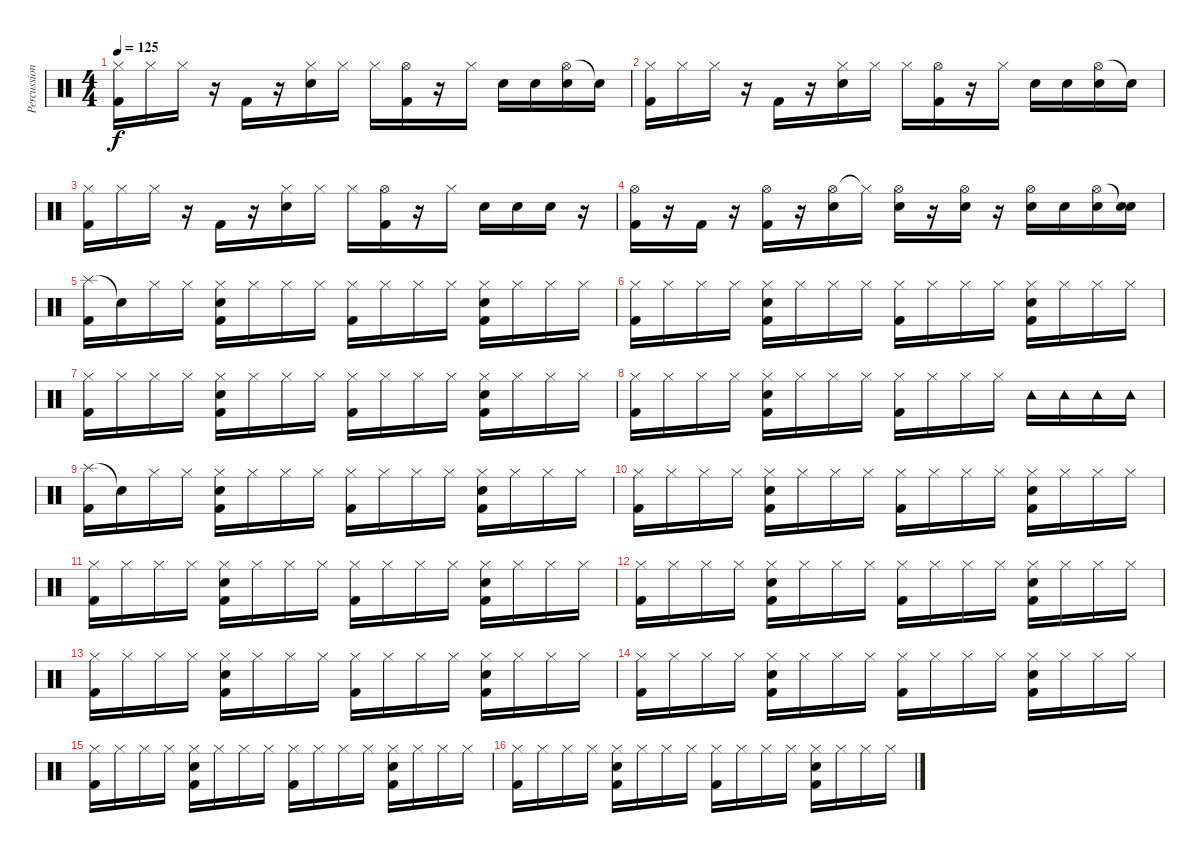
\track ("Percussion" "Percussion") {instrument percussion}
\staff {score}
\articulation defaults
\ts (4 4)
\tempo 125
\clef neutral
\ks c
("Hi-Hat (closed)" "Kick (hit) 2").16{dy f} "Hi-Hat (closed)".16 "Hi-Hat (closed)".16 r.16 "Kick (hit) 2".16 r.16 ("Hi-Hat (closed)" "Electric Snare (hit)").16 "Hi-Hat (closed)".16 "Hi-Hat (closed)".16 ("Hi-Hat (open)" "Kick (hit) 2").16 r.16 "Hi-Hat (closed)".16 "Electric Snare (hit)".16 "Electric Snare (hit)".16 ("Hi-Hat (open)" "Electric Snare (hit)").16 "Snare (hit)"{t}.16 |
("Hi-Hat (closed)" "Kick (hit) 2").16 "Hi-Hat (closed)".16 "Hi-Hat (closed)".16 r.16 "Kick (hit) 2".16 r.16 ("Hi-Hat (closed)" "Electric Snare (hit)").16 "Hi-Hat (closed)".16 "Hi-Hat (closed)".16 ("Hi-Hat (open)" "Kick (hit) 2").16 r.16 "Hi-Hat (closed)".16 "Electric Snare (hit)".16 "Electric Snare (hit)".16 ("Hi-Hat (open)" "Electric Snare (hit)").16 "Snare (hit)"{t}.16 |
("Hi-Hat (closed)" "Kick (hit) 2").16 "Hi-Hat (closed)".16 "Hi-Hat (closed)".16 r.16 "Kick (hit) 2".16 r.16 ("Hi-Hat (closed)" "Electric Snare (hit)").16 "Hi-Hat (closed)".16 "Hi-Hat (closed)".16 ("Hi-Hat (open)" "Kick (hit) 2").16 r.16 "Hi-Hat (closed)".16 "Electric Snare (hit)".16 "Electric Snare (hit)".16 "Electric Snare (hit)".16 r.16 |
("Hi-Hat (open)" "Kick (hit) 2").16 r.16 "Kick (hit) 2".16 r.16 ("Hi-Hat (open)" "Kick (hit) 2").16 r.16 ("Hi-Hat (open)" "Electric Snare (hit)").16 "Hi-Hat (closed)"{t}.16 ("Hi-Hat (open)" "Electric Snare (hit)").16 r.16 ("Hi-Hat (open)" "Electric Snare (hit)").16 r.16 ("Hi-Hat (open)" "Electric Snare (hit)").16 "Electric Snare (hit)".16 ("Hi-Hat (open)" "Electric Snare (hit)").16 ("Snare (hit)"{t} "Electric Snare (hit)").16 |
("Splash (hit)" "Kick (hit) 2").16 "Snare (hit)"{t}.16 "Hi-Hat (closed)".16 "Hi-Hat (closed)".16 ("Hi-Hat (closed)" "Electric Snare (hit)" "Kick (hit) 2").16 "Hi-Hat (closed)".16 "Hi-Hat (closed)".16 "Hi-Hat (closed)".16 ("Hi-Hat (closed)" "Kick (hit) 2").16 "Hi-Hat (closed)".16 "Hi-Hat (closed)".16 "Hi-Hat (closed)".16 ("Hi-Hat (closed)" "Electric Snare (hit)" "Kick (hit) 2").16 "Hi-Hat (closed)".16 "Hi-Hat (closed)".16 "Hi-Hat (closed)".16 |
("Hi-Hat (closed)" "Kick (hit) 2").16 "Hi-Hat (closed)".16 "Hi-Hat (closed)".16 "Hi-Hat (closed)".16 ("Hi-Hat (closed)" "Electric Snare (hit)" "Kick (hit) 2").16 "Hi-Hat (closed)".16 "Hi-Hat (closed)".16 "Hi-Hat (closed)".16 ("Hi-Hat (closed)" "Kick (hit) 2").16 "Hi-Hat (closed)".16 "Hi-Hat (closed)".16 "Hi-Hat (closed)".16 ("Hi-Hat (closed)" "Electric Snare (hit)" "Kick (hit) 2").16 "Hi-Hat (closed)".16 "Hi-Hat (closed)".16 "Hi-Hat (closed)".16 |
("Hi-Hat (closed)" "Kick (hit) 2").16 "Hi-Hat (closed)".16 "Hi-Hat (closed)".16 "Hi-Hat (closed)".16 ("Hi-Hat (closed)" "Electric Snare (hit)" "Kick (hit) 2").16 "Hi-Hat (closed)".16 "Hi-Hat (closed)".16 "Hi-Hat (closed)".16 ("Hi-Hat (closed)" "Kick (hit) 2").16 "Hi-Hat (closed)".16 "Hi-Hat (closed)".16 "Hi-Hat (closed)".16 ("Hi-Hat (closed)" "Electric Snare (hit)" "Kick (hit) 2").16 "Hi-Hat (closed)".16 "Hi-Hat (closed)".16 "Hi-Hat (closed)".16 |
("Hi-Hat (closed)" "Kick (hit) 2").16 "Hi-Hat (closed)".16 "Hi-Hat (closed)".16 "Hi-Hat (closed)".16 ("Hi-Hat (closed)" "Electric Snare (hit)" "Kick (hit) 2").16 "Hi-Hat (closed)".16 "Hi-Hat (closed)".16 "Hi-Hat (closed)".16 ("Hi-Hat (closed)" "Kick (hit) 2").16 "Hi-Hat (closed)".16 "Hi-Hat (closed)".16 "Hi-Hat (closed)".16 "Tambourine (hit)".16 "Tambourine (hit)".16 "Tambourine (hit)".16 "Tambourine (hit)".16 |
("Splash (hit)" "Kick (hit) 2").16 "Snare (hit)"{t}.16 "Hi-Hat (closed)".16 "Hi-Hat (closed)".16 ("Hi-Hat (closed)" "Electric Snare (hit)" "Kick (hit) 2").16 "Hi-Hat (closed)".16 "Hi-Hat (closed)".16 "Hi-Hat (closed)".16 ("Hi-Hat (closed)" "Kick (hit) 2").16 "Hi-Hat (closed)".16 "Hi-Hat (closed)".16 "Hi-Hat (closed)".16 ("Hi-Hat (closed)" "Electric Snare (hit)" "Kick (hit) 2").16 "Hi-Hat (closed)".16 "Hi-Hat (closed)".16 "Hi-Hat (closed)".16 |
("Hi-Hat (closed)" "Kick (hit) 2").16 "Hi-Hat (closed)".16 "Hi-Hat (closed)".16 "Hi-Hat (closed)".16 ("Hi-Hat (closed)" "Electric Snare (hit)" "Kick (hit) 2").16 "Hi-Hat (closed)".16 "Hi-Hat (closed)".16 "Hi-Hat (closed)".16 ("Hi-Hat (closed)" "Kick (hit) 2").16 "Hi-Hat (closed)".16 "Hi-Hat (closed)".16 "Hi-Hat (closed)".16 ("Hi-Hat (closed)" "Electric Snare (hit)" "Kick (hit) 2").16 "Hi-Hat (closed)".16 "Hi-Hat (closed)".16 "Hi-Hat (closed)".16 |
("Hi-Hat (closed)" "Kick (hit) 2").16 "Hi-Hat (closed)".16 "Hi-Hat (closed)".16 "Hi-Hat (closed)".16 ("Hi-Hat (closed)" "Electric Snare (hit)" "Kick (hit) 2").16 "Hi-Hat (closed)".16 "Hi-Hat (closed)".16 "Hi-Hat (closed)".16 ("Hi-Hat (closed)" "Kick (hit) 2").16 "Hi-Hat (closed)".16 "Hi-Hat (closed)".16 "Hi-Hat (closed)".16 ("Hi-Hat (closed)" "Electric Snare (hit)" "Kick (hit) 2").16 "Hi-Hat (closed)".16 "Hi-Hat (closed)".16 "Hi-Hat (closed)".16 |
("Hi-Hat (closed)" "Kick (hit) 2").16 "Hi-Hat (closed)".16 "Hi-Hat (closed)".16 "Hi-Hat (closed)".16 ("Hi-Hat (closed)" "Electric Snare (hit)" "Kick (hit) 2").16 "Hi-Hat (closed)".16 "Hi-Hat (closed)".16 "Hi-Hat (closed)".16 ("Hi-Hat (closed)" "Kick (hit) 2").16 "Hi-Hat (closed)".16 "Hi-Hat (closed)".16 "Hi-Hat (closed)".16 ("Hi-Hat (closed)" "Electric Snare (hit)" "Kick (hit) 2").16 "Hi-Hat (closed)".16 "Hi-Hat (closed)".16 "Hi-Hat (closed)".16 |
("Hi-Hat (closed)" "Kick (hit) 2").16 "Hi-Hat (closed)".16 "Hi-Hat (closed)".16 "Hi-Hat (closed)".16 ("Hi-Hat (closed)" "Electric Snare (hit)" "Kick (hit) 2").16 "Hi-Hat (closed)".16 "Hi-Hat (closed)".16 "Hi-Hat (closed)".16 ("Hi-Hat (closed)" "Kick (hit) 2").16 "Hi-Hat (closed)".16 "Hi-Hat (closed)".16 "Hi-Hat (closed)".16 ("Hi-Hat (closed)" "Electric Snare (hit)" "Kick (hit) 2").16 "Hi-Hat (closed)".16 "Hi-Hat (closed)".16 "Hi-Hat (closed)".16 |
("Hi-Hat (closed)" "Kick (hit) 2").16 "Hi-Hat (closed)".16 "Hi-Hat (closed)".16 "Hi-Hat (closed)".16 ("Hi-Hat (closed)" "Electric Snare (hit)" "Kick (hit) 2").16 "Hi-Hat (closed)".16 "Hi-Hat (closed)".16 "Hi-Hat (closed)".16 ("Hi-Hat (closed)" "Kick (hit) 2").16 "Hi-Hat (closed)".16 "Hi-Hat (closed)".16 "Hi-Hat (closed)".16 ("Hi-Hat (closed)" "Electric Snare (hit)" "Kick (hit) 2").16 "Hi-Hat (closed)".16 "Hi-Hat (closed)".16 "Hi-Hat (closed)".16 |
("Hi-Hat (closed)" "Kick (hit) 2").16 "Hi-Hat (closed)".16 "Hi-Hat (closed)".16 "Hi-Hat (closed)".16 ("Hi-Hat (closed)" "Electric Snare (hit)" "Kick (hit) 2").16 "Hi-Hat (closed)".16 "Hi-Hat (closed)".16 "Hi-Hat (closed)".16 ("Hi-Hat (closed)" "Kick (hit) 2").16 "Hi-Hat (closed)".16 "Hi-Hat (closed)".16 "Hi-Hat (closed)".16 ("Hi-Hat (closed)" "Electric Snare (hit)" "Kick (hit) 2").16 "Hi-Hat (closed)".16 "Hi-Hat (closed)".16 "Hi-Hat (closed)".16 |
("Hi-Hat (closed)" "Kick (hit) 2").16 "Hi-Hat (closed)".16 "Hi-Hat (closed)".16 "Hi-Hat (closed)".16 ("Hi-Hat (closed)" "Electric Snare (hit)" "Kick (hit) 2").16 "Hi-Hat (closed)".16 "Hi-Hat (closed)".16 "Hi-Hat (closed)".16 ("Hi-Hat (closed)" "Kick (hit) 2").16 "Hi-Hat (closed)".16 "Hi-Hat (closed)".16 "Hi-Hat (closed)".16 ("Hi-Hat (closed)" "Electric Snare (hit)" "Kick (hit) 2").16 "Hi-Hat (closed)".16 "Hi-Hat (closed)".16 "Hi-Hat (closed)".16
